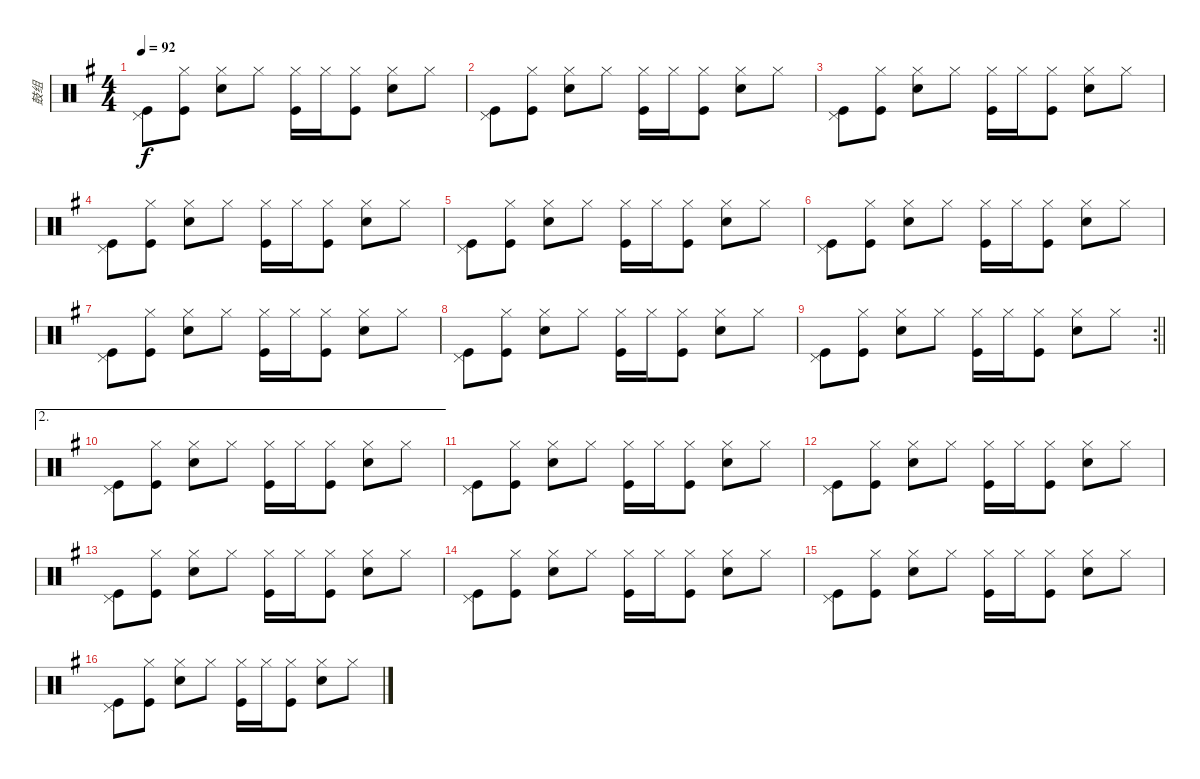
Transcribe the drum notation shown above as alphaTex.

\track ("鼓组" "鼓组") {instrument percussion}
\staff {score}
\articulation defaults
\ts (4 4)
\tempo 92
\clef neutral
\ks g
("Pedal Hi-Hat (hit)" "Kick (hit)").8{dy f} ("Hi-Hat (closed)" "Kick (hit)").8 ("Hi-Hat (closed)" "Snare (hit) 2").8 "Hi-Hat (closed)".8 ("Hi-Hat (closed)" "Kick (hit)").16 "Hi-Hat (closed)".16 ("Hi-Hat (closed)" "Kick (hit)").8 ("Hi-Hat (closed)" "Snare (hit) 2").8 "Hi-Hat (closed)".8 |
("Pedal Hi-Hat (hit)" "Kick (hit)").8 ("Hi-Hat (closed)" "Kick (hit)").8 ("Hi-Hat (closed)" "Snare (hit) 2").8 "Hi-Hat (closed)".8 ("Hi-Hat (closed)" "Kick (hit)").16 "Hi-Hat (closed)".16 ("Hi-Hat (closed)" "Kick (hit)").8 ("Hi-Hat (closed)" "Snare (hit) 2").8 "Hi-Hat (closed)".8 |
("Pedal Hi-Hat (hit)" "Kick (hit)").8 ("Hi-Hat (closed)" "Kick (hit)").8 ("Hi-Hat (closed)" "Snare (hit) 2").8 "Hi-Hat (closed)".8 ("Hi-Hat (closed)" "Kick (hit)").16 "Hi-Hat (closed)".16 ("Hi-Hat (closed)" "Kick (hit)").8 ("Hi-Hat (closed)" "Snare (hit) 2").8 "Hi-Hat (closed)".8 |
("Pedal Hi-Hat (hit)" "Kick (hit)").8 ("Hi-Hat (closed)" "Kick (hit)").8 ("Hi-Hat (closed)" "Snare (hit) 2").8 "Hi-Hat (closed)".8 ("Hi-Hat (closed)" "Kick (hit)").16 "Hi-Hat (closed)".16 ("Hi-Hat (closed)" "Kick (hit)").8 ("Hi-Hat (closed)" "Snare (hit) 2").8 "Hi-Hat (closed)".8 |
("Pedal Hi-Hat (hit)" "Kick (hit)").8 ("Hi-Hat (closed)" "Kick (hit)").8 ("Hi-Hat (closed)" "Snare (hit) 2").8 "Hi-Hat (closed)".8 ("Hi-Hat (closed)" "Kick (hit)").16 "Hi-Hat (closed)".16 ("Hi-Hat (closed)" "Kick (hit)").8 ("Hi-Hat (closed)" "Snare (hit) 2").8 "Hi-Hat (closed)".8 |
("Pedal Hi-Hat (hit)" "Kick (hit)").8 ("Hi-Hat (closed)" "Kick (hit)").8 ("Hi-Hat (closed)" "Snare (hit) 2").8 "Hi-Hat (closed)".8 ("Hi-Hat (closed)" "Kick (hit)").16 "Hi-Hat (closed)".16 ("Hi-Hat (closed)" "Kick (hit)").8 ("Hi-Hat (closed)" "Snare (hit) 2").8 "Hi-Hat (closed)".8 |
("Pedal Hi-Hat (hit)" "Kick (hit)").8 ("Hi-Hat (closed)" "Kick (hit)").8 ("Hi-Hat (closed)" "Snare (hit) 2").8 "Hi-Hat (closed)".8 ("Hi-Hat (closed)" "Kick (hit)").16 "Hi-Hat (closed)".16 ("Hi-Hat (closed)" "Kick (hit)").8 ("Hi-Hat (closed)" "Snare (hit) 2").8 "Hi-Hat (closed)".8 |
("Pedal Hi-Hat (hit)" "Kick (hit)").8 ("Hi-Hat (closed)" "Kick (hit)").8 ("Hi-Hat (closed)" "Snare (hit) 2").8 "Hi-Hat (closed)".8 ("Hi-Hat (closed)" "Kick (hit)").16 "Hi-Hat (closed)".16 ("Hi-Hat (closed)" "Kick (hit)").8 ("Hi-Hat (closed)" "Snare (hit) 2").8 "Hi-Hat (closed)".8 |
\rc 2
\barLineRight lightlight
("Pedal Hi-Hat (hit)" "Kick (hit)").8 ("Hi-Hat (closed)" "Kick (hit)").8 ("Hi-Hat (closed)" "Snare (hit) 2").8 "Hi-Hat (closed)".8 ("Hi-Hat (closed)" "Kick (hit)").16 "Hi-Hat (closed)".16 ("Hi-Hat (closed)" "Kick (hit)").8 ("Hi-Hat (closed)" "Snare (hit) 2").8 "Hi-Hat (closed)".8 |
\ae 2
("Pedal Hi-Hat (hit)" "Kick (hit)").8 ("Hi-Hat (closed)" "Kick (hit)").8 ("Hi-Hat (closed)" "Snare (hit) 2").8 "Hi-Hat (closed)".8 ("Hi-Hat (closed)" "Kick (hit)").16 "Hi-Hat (closed)".16 ("Hi-Hat (closed)" "Kick (hit)").8 ("Hi-Hat (closed)" "Snare (hit) 2").8 "Hi-Hat (closed)".8 |
("Pedal Hi-Hat (hit)" "Kick (hit)").8 ("Hi-Hat (closed)" "Kick (hit)").8 ("Hi-Hat (closed)" "Snare (hit) 2").8 "Hi-Hat (closed)".8 ("Hi-Hat (closed)" "Kick (hit)").16 "Hi-Hat (closed)".16 ("Hi-Hat (closed)" "Kick (hit)").8 ("Hi-Hat (closed)" "Snare (hit) 2").8 "Hi-Hat (closed)".8 |
("Pedal Hi-Hat (hit)" "Kick (hit)").8 ("Hi-Hat (closed)" "Kick (hit)").8 ("Hi-Hat (closed)" "Snare (hit) 2").8 "Hi-Hat (closed)".8 ("Hi-Hat (closed)" "Kick (hit)").16 "Hi-Hat (closed)".16 ("Hi-Hat (closed)" "Kick (hit)").8 ("Hi-Hat (closed)" "Snare (hit) 2").8 "Hi-Hat (closed)".8 |
("Pedal Hi-Hat (hit)" "Kick (hit)").8 ("Hi-Hat (closed)" "Kick (hit)").8 ("Hi-Hat (closed)" "Snare (hit) 2").8 "Hi-Hat (closed)".8 ("Hi-Hat (closed)" "Kick (hit)").16 "Hi-Hat (closed)".16 ("Hi-Hat (closed)" "Kick (hit)").8 ("Hi-Hat (closed)" "Snare (hit) 2").8 "Hi-Hat (closed)".8 |
("Pedal Hi-Hat (hit)" "Kick (hit)").8 ("Hi-Hat (closed)" "Kick (hit)").8 ("Hi-Hat (closed)" "Snare (hit) 2").8 "Hi-Hat (closed)".8 ("Hi-Hat (closed)" "Kick (hit)").16 "Hi-Hat (closed)".16 ("Hi-Hat (closed)" "Kick (hit)").8 ("Hi-Hat (closed)" "Snare (hit) 2").8 "Hi-Hat (closed)".8 |
("Pedal Hi-Hat (hit)" "Kick (hit)").8 ("Hi-Hat (closed)" "Kick (hit)").8 ("Hi-Hat (closed)" "Snare (hit) 2").8 "Hi-Hat (closed)".8 ("Hi-Hat (closed)" "Kick (hit)").16 "Hi-Hat (closed)".16 ("Hi-Hat (closed)" "Kick (hit)").8 ("Hi-Hat (closed)" "Snare (hit) 2").8 "Hi-Hat (closed)".8 |
("Pedal Hi-Hat (hit)" "Kick (hit)").8 ("Hi-Hat (closed)" "Kick (hit)").8 ("Hi-Hat (closed)" "Snare (hit) 2").8 "Hi-Hat (closed)".8 ("Hi-Hat (closed)" "Kick (hit)").16 "Hi-Hat (closed)".16 ("Hi-Hat (closed)" "Kick (hit)").8 ("Hi-Hat (closed)" "Snare (hit) 2").8 "Hi-Hat (closed)".8
